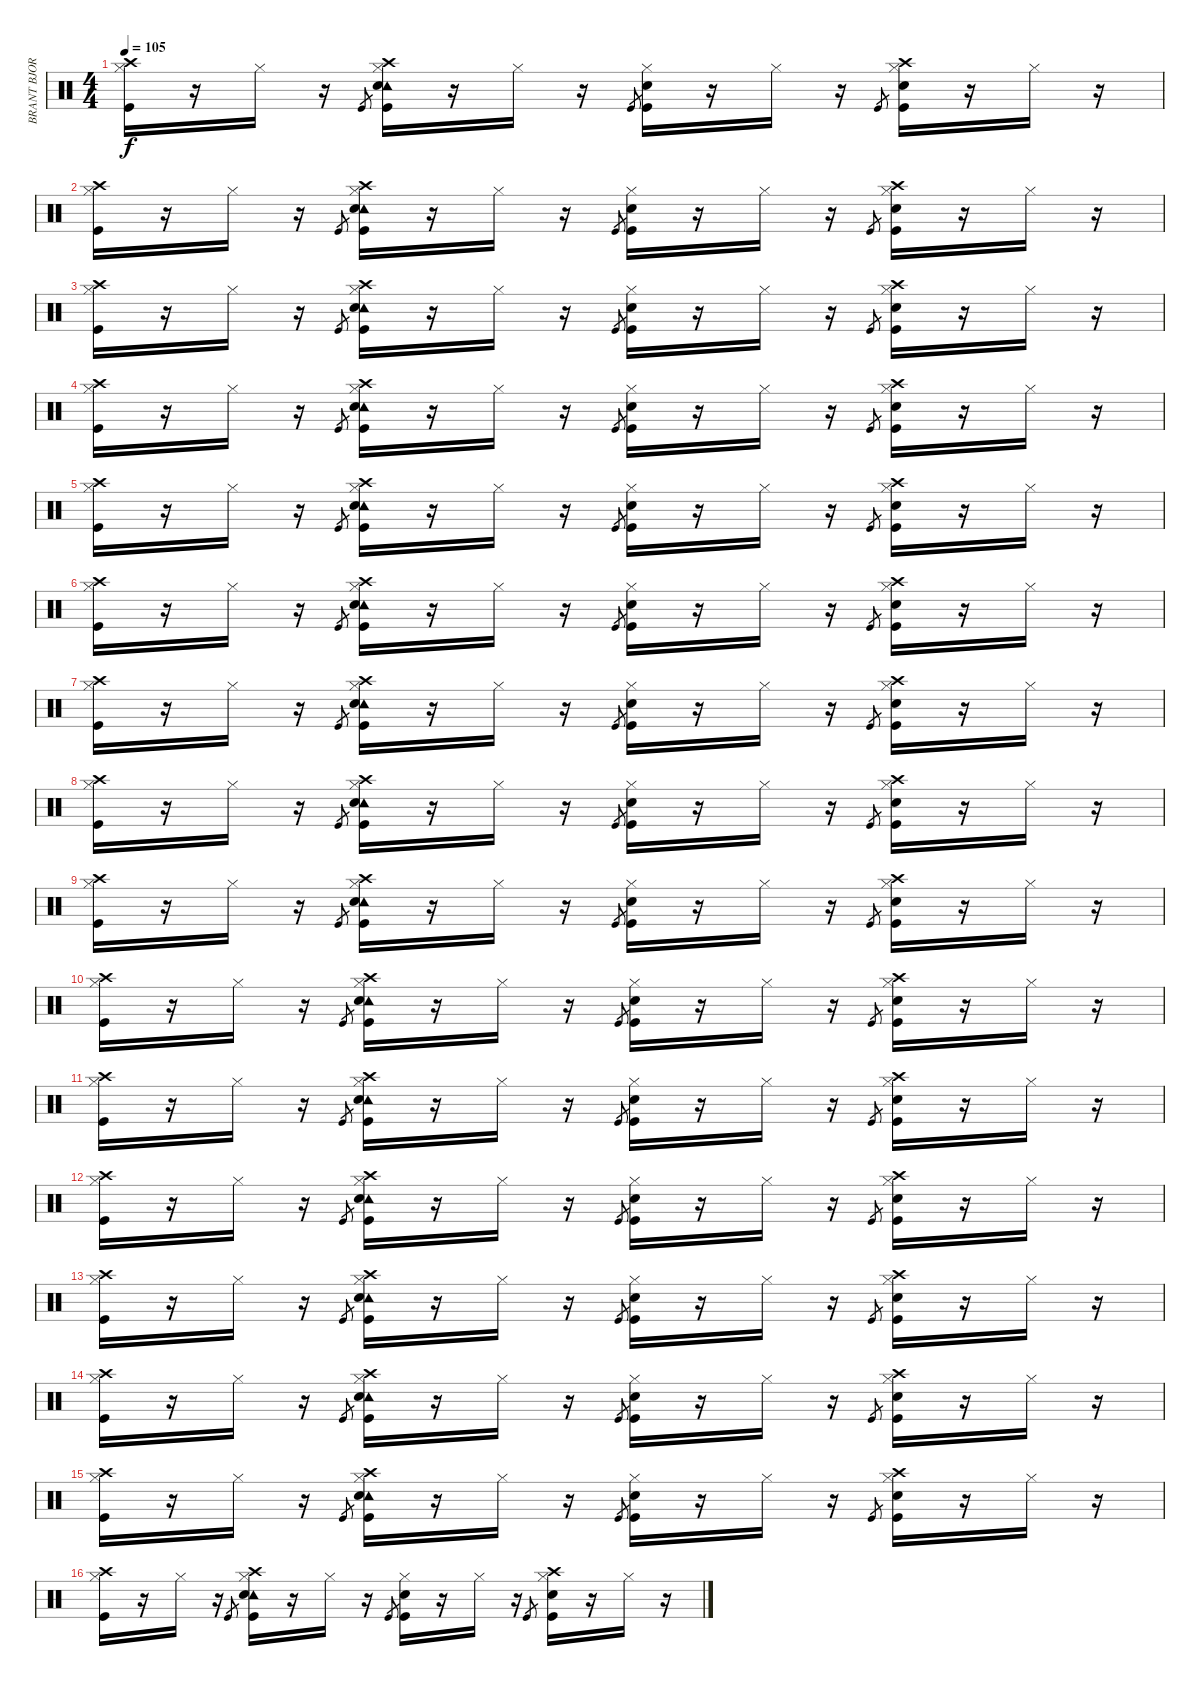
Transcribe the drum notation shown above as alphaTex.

\track ("BRANT BJORK -  DRUMS" "BRANT BJOR") {instrument percussion}
\staff {score}
\articulation defaults
\ts (4 4)
\tempo 105
\clef neutral
\ks c
("Crash high (hit)" "Hi-Hat (closed)" "Kick (hit)").16{dy f} r.16 "Hi-Hat (closed)".16 r.16 "Kick (hit)".8{gr} ("Crash high (hit)" "Hi-Hat (closed)" "Tambourine (hit)" "Snare (hit) 2" "Kick (hit)").16 r.16 "Hi-Hat (closed)".16 r.16 "Kick (hit)".8{gr} ("Hi-Hat (closed)" "Snare (hit) 2" "Kick (hit)").16 r.16 "Hi-Hat (closed)".16 r.16 "Kick (hit)".8{gr} ("Crash high (hit)" "Hi-Hat (closed)" "Snare (hit) 2" "Kick (hit)").16 r.16 "Hi-Hat (closed)".16 r.16 |
("Crash high (hit)" "Hi-Hat (closed)" "Kick (hit)").16 r.16 "Hi-Hat (closed)".16 r.16 "Kick (hit)".8{gr} ("Crash high (hit)" "Hi-Hat (closed)" "Tambourine (hit)" "Snare (hit) 2" "Kick (hit)").16 r.16 "Hi-Hat (closed)".16 r.16 "Kick (hit)".8{gr} ("Hi-Hat (closed)" "Snare (hit) 2" "Kick (hit)").16 r.16 "Hi-Hat (closed)".16 r.16 "Kick (hit)".8{gr} ("Crash high (hit)" "Hi-Hat (closed)" "Snare (hit) 2" "Kick (hit)").16 r.16 "Hi-Hat (closed)".16 r.16 |
("Crash high (hit)" "Hi-Hat (closed)" "Kick (hit)").16 r.16 "Hi-Hat (closed)".16 r.16 "Kick (hit)".8{gr} ("Crash high (hit)" "Hi-Hat (closed)" "Tambourine (hit)" "Snare (hit) 2" "Kick (hit)").16 r.16 "Hi-Hat (closed)".16 r.16 "Kick (hit)".8{gr} ("Hi-Hat (closed)" "Snare (hit) 2" "Kick (hit)").16 r.16 "Hi-Hat (closed)".16 r.16 "Kick (hit)".8{gr} ("Crash high (hit)" "Hi-Hat (closed)" "Snare (hit) 2" "Kick (hit)").16 r.16 "Hi-Hat (closed)".16 r.16 |
("Crash high (hit)" "Hi-Hat (closed)" "Kick (hit)").16 r.16 "Hi-Hat (closed)".16 r.16 "Kick (hit)".8{gr} ("Crash high (hit)" "Hi-Hat (closed)" "Tambourine (hit)" "Snare (hit) 2" "Kick (hit)").16 r.16 "Hi-Hat (closed)".16 r.16 "Kick (hit)".8{gr} ("Hi-Hat (closed)" "Snare (hit) 2" "Kick (hit)").16 r.16 "Hi-Hat (closed)".16 r.16 "Kick (hit)".8{gr} ("Crash high (hit)" "Hi-Hat (closed)" "Snare (hit) 2" "Kick (hit)").16 r.16 "Hi-Hat (closed)".16 r.16 |
("Crash high (hit)" "Hi-Hat (closed)" "Kick (hit)").16 r.16 "Hi-Hat (closed)".16 r.16 "Kick (hit)".8{gr} ("Crash high (hit)" "Hi-Hat (closed)" "Tambourine (hit)" "Snare (hit) 2" "Kick (hit)").16 r.16 "Hi-Hat (closed)".16 r.16 "Kick (hit)".8{gr} ("Hi-Hat (closed)" "Snare (hit) 2" "Kick (hit)").16 r.16 "Hi-Hat (closed)".16 r.16 "Kick (hit)".8{gr} ("Crash high (hit)" "Hi-Hat (closed)" "Snare (hit) 2" "Kick (hit)").16 r.16 "Hi-Hat (closed)".16 r.16 |
("Crash high (hit)" "Hi-Hat (closed)" "Kick (hit)").16 r.16 "Hi-Hat (closed)".16 r.16 "Kick (hit)".8{gr} ("Crash high (hit)" "Hi-Hat (closed)" "Tambourine (hit)" "Snare (hit) 2" "Kick (hit)").16 r.16 "Hi-Hat (closed)".16 r.16 "Kick (hit)".8{gr} ("Hi-Hat (closed)" "Snare (hit) 2" "Kick (hit)").16 r.16 "Hi-Hat (closed)".16 r.16 "Kick (hit)".8{gr} ("Crash high (hit)" "Hi-Hat (closed)" "Snare (hit) 2" "Kick (hit)").16 r.16 "Hi-Hat (closed)".16 r.16 |
("Crash high (hit)" "Hi-Hat (closed)" "Kick (hit)").16 r.16 "Hi-Hat (closed)".16 r.16 "Kick (hit)".8{gr} ("Crash high (hit)" "Hi-Hat (closed)" "Tambourine (hit)" "Snare (hit) 2" "Kick (hit)").16 r.16 "Hi-Hat (closed)".16 r.16 "Kick (hit)".8{gr} ("Hi-Hat (closed)" "Snare (hit) 2" "Kick (hit)").16 r.16 "Hi-Hat (closed)".16 r.16 "Kick (hit)".8{gr} ("Crash high (hit)" "Hi-Hat (closed)" "Snare (hit) 2" "Kick (hit)").16 r.16 "Hi-Hat (closed)".16 r.16 |
("Crash high (hit)" "Hi-Hat (closed)" "Kick (hit)").16 r.16 "Hi-Hat (closed)".16 r.16 "Kick (hit)".8{gr} ("Crash high (hit)" "Hi-Hat (closed)" "Tambourine (hit)" "Snare (hit) 2" "Kick (hit)").16 r.16 "Hi-Hat (closed)".16 r.16 "Kick (hit)".8{gr} ("Hi-Hat (closed)" "Snare (hit) 2" "Kick (hit)").16 r.16 "Hi-Hat (closed)".16 r.16 "Kick (hit)".8{gr} ("Crash high (hit)" "Hi-Hat (closed)" "Snare (hit) 2" "Kick (hit)").16 r.16 "Hi-Hat (closed)".16 r.16 |
("Crash high (hit)" "Hi-Hat (closed)" "Kick (hit)").16 r.16 "Hi-Hat (closed)".16 r.16 "Kick (hit)".8{gr} ("Crash high (hit)" "Hi-Hat (closed)" "Tambourine (hit)" "Snare (hit) 2" "Kick (hit)").16 r.16 "Hi-Hat (closed)".16 r.16 "Kick (hit)".8{gr} ("Hi-Hat (closed)" "Snare (hit) 2" "Kick (hit)").16 r.16 "Hi-Hat (closed)".16 r.16 "Kick (hit)".8{gr} ("Crash high (hit)" "Hi-Hat (closed)" "Snare (hit) 2" "Kick (hit)").16 r.16 "Hi-Hat (closed)".16 r.16 |
("Crash high (hit)" "Hi-Hat (closed)" "Kick (hit)").16 r.16 "Hi-Hat (closed)".16 r.16 "Kick (hit)".8{gr} ("Crash high (hit)" "Hi-Hat (closed)" "Tambourine (hit)" "Snare (hit) 2" "Kick (hit)").16 r.16 "Hi-Hat (closed)".16 r.16 "Kick (hit)".8{gr} ("Hi-Hat (closed)" "Snare (hit) 2" "Kick (hit)").16 r.16 "Hi-Hat (closed)".16 r.16 "Kick (hit)".8{gr} ("Crash high (hit)" "Hi-Hat (closed)" "Snare (hit) 2" "Kick (hit)").16 r.16 "Hi-Hat (closed)".16 r.16 |
("Crash high (hit)" "Hi-Hat (closed)" "Kick (hit)").16 r.16 "Hi-Hat (closed)".16 r.16 "Kick (hit)".8{gr} ("Crash high (hit)" "Hi-Hat (closed)" "Tambourine (hit)" "Snare (hit) 2" "Kick (hit)").16 r.16 "Hi-Hat (closed)".16 r.16 "Kick (hit)".8{gr} ("Hi-Hat (closed)" "Snare (hit) 2" "Kick (hit)").16 r.16 "Hi-Hat (closed)".16 r.16 "Kick (hit)".8{gr} ("Crash high (hit)" "Hi-Hat (closed)" "Snare (hit) 2" "Kick (hit)").16 r.16 "Hi-Hat (closed)".16 r.16 |
("Crash high (hit)" "Hi-Hat (closed)" "Kick (hit)").16 r.16 "Hi-Hat (closed)".16 r.16 "Kick (hit)".8{gr} ("Crash high (hit)" "Hi-Hat (closed)" "Tambourine (hit)" "Snare (hit) 2" "Kick (hit)").16 r.16 "Hi-Hat (closed)".16 r.16 "Kick (hit)".8{gr} ("Hi-Hat (closed)" "Snare (hit) 2" "Kick (hit)").16 r.16 "Hi-Hat (closed)".16 r.16 "Kick (hit)".8{gr} ("Crash high (hit)" "Hi-Hat (closed)" "Snare (hit) 2" "Kick (hit)").16 r.16 "Hi-Hat (closed)".16 r.16 |
("Crash high (hit)" "Hi-Hat (closed)" "Kick (hit)").16 r.16 "Hi-Hat (closed)".16 r.16 "Kick (hit)".8{gr} ("Crash high (hit)" "Hi-Hat (closed)" "Tambourine (hit)" "Snare (hit) 2" "Kick (hit)").16 r.16 "Hi-Hat (closed)".16 r.16 "Kick (hit)".8{gr} ("Hi-Hat (closed)" "Snare (hit) 2" "Kick (hit)").16 r.16 "Hi-Hat (closed)".16 r.16 "Kick (hit)".8{gr} ("Crash high (hit)" "Hi-Hat (closed)" "Snare (hit) 2" "Kick (hit)").16 r.16 "Hi-Hat (closed)".16 r.16 |
("Crash high (hit)" "Hi-Hat (closed)" "Kick (hit)").16 r.16 "Hi-Hat (closed)".16 r.16 "Kick (hit)".8{gr} ("Crash high (hit)" "Hi-Hat (closed)" "Tambourine (hit)" "Snare (hit) 2" "Kick (hit)").16 r.16 "Hi-Hat (closed)".16 r.16 "Kick (hit)".8{gr} ("Hi-Hat (closed)" "Snare (hit) 2" "Kick (hit)").16 r.16 "Hi-Hat (closed)".16 r.16 "Kick (hit)".8{gr} ("Crash high (hit)" "Hi-Hat (closed)" "Snare (hit) 2" "Kick (hit)").16 r.16 "Hi-Hat (closed)".16 r.16 |
("Crash high (hit)" "Hi-Hat (closed)" "Kick (hit)").16 r.16 "Hi-Hat (closed)".16 r.16 "Kick (hit)".8{gr} ("Crash high (hit)" "Hi-Hat (closed)" "Tambourine (hit)" "Snare (hit) 2" "Kick (hit)").16 r.16 "Hi-Hat (closed)".16 r.16 "Kick (hit)".8{gr} ("Hi-Hat (closed)" "Snare (hit) 2" "Kick (hit)").16 r.16 "Hi-Hat (closed)".16 r.16 "Kick (hit)".8{gr} ("Crash high (hit)" "Hi-Hat (closed)" "Snare (hit) 2" "Kick (hit)").16 r.16 "Hi-Hat (closed)".16 r.16 |
("Crash high (hit)" "Hi-Hat (closed)" "Kick (hit)").16 r.16 "Hi-Hat (closed)".16 r.16 "Kick (hit)".8{gr} ("Crash high (hit)" "Hi-Hat (closed)" "Tambourine (hit)" "Snare (hit) 2" "Kick (hit)").16 r.16 "Hi-Hat (closed)".16 r.16 "Kick (hit)".8{gr} ("Hi-Hat (closed)" "Snare (hit) 2" "Kick (hit)").16 r.16 "Hi-Hat (closed)".16 r.16 "Kick (hit)".8{gr} ("Crash high (hit)" "Hi-Hat (closed)" "Snare (hit) 2" "Kick (hit)").16 r.16 "Hi-Hat (closed)".16 r.16
